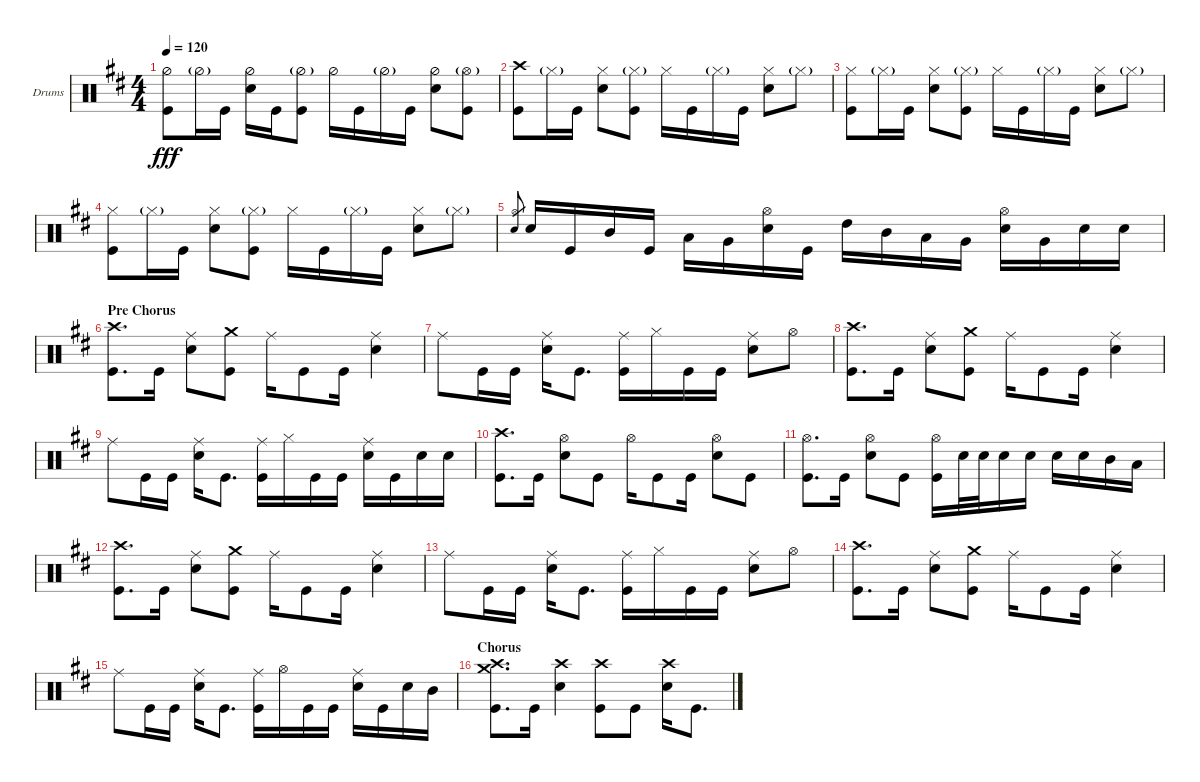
\defaultSystemsLayout 4
\bracketExtendMode groupsimilarinstruments
\firstSystemTrackNameOrientation horizontal
\otherSystemsTrackNameOrientation horizontal
\track ("Garrett" "Drums") {instrument percussion}
\staff {score}
\articulation defaults
\ts (4 4)
\tempo 120
\clef neutral
\ks bminor
("Kick (hit)" "Hi-Hat (half)").8{dy fff} "Hi-Hat (half)"{g}.16 "Kick (hit)".16 ("Snare (hit) 2" "Hi-Hat (half)").16 "Kick (hit)".16 ("Hi-Hat (half)"{g} "Kick (hit)").8 "Hi-Hat (half)".16 "Kick (hit)".16 "Hi-Hat (half)"{g}.16 "Kick (hit)".16 ("Snare (hit) 2" "Hi-Hat (half)").8 ("Hi-Hat (open)"{g} "Kick (hit)").8 |
("Crash high (hit)" "Kick (hit)").8 "Hi-Hat (closed)"{g}.16 "Kick (hit)".16 ("Snare (hit) 2" "Hi-Hat (closed)").8 ("Hi-Hat (closed)"{g} "Kick (hit)").8 "Hi-Hat (closed)".16 "Kick (hit)".16 "Hi-Hat (closed)"{g}.16 "Kick (hit)".16 ("Snare (hit) 2" "Hi-Hat (closed)").8 "Hi-Hat (closed)"{g}.8 |
("Kick (hit)" "Hi-Hat (closed)").8 "Hi-Hat (closed)"{g}.16 "Kick (hit)".16 ("Snare (hit) 2" "Hi-Hat (closed)").8 ("Hi-Hat (closed)"{g} "Kick (hit)").8 "Hi-Hat (closed)".16 "Kick (hit)".16 "Hi-Hat (closed)"{g}.16 "Kick (hit)".16 ("Snare (hit) 2" "Hi-Hat (closed)").8 "Hi-Hat (closed)"{g}.8 |
("Kick (hit)" "Hi-Hat (closed)").8 "Hi-Hat (closed)"{g}.16 "Kick (hit)".16 ("Snare (hit) 2" "Hi-Hat (closed)").8 ("Hi-Hat (closed)"{g} "Kick (hit)").8 "Hi-Hat (closed)".16 "Kick (hit)".16 "Hi-Hat (closed)"{g}.16 "Kick (hit)".16 ("Snare (hit) 2" "Hi-Hat (closed)").8 "Hi-Hat (closed)"{g}.8 |
("Snare (hit) 2" "Hi-Hat (open)").8{gr} "Snare (hit) 2".16 "Kick (hit)".16 "Mid Tom (hit)".16 "Kick (hit)".16 "Low Tom (hit)".16 "Very Low Tom (hit)".16 ("Snare (hit) 2" "Hi-Hat (open)").16 "Kick (hit)".16 "High Tom (hit)".16 "Mid Tom (hit)".16 "Low Tom (hit)".16 "Very Low Tom (hit)".16 ("Snare (hit) 2" "Hi-Hat (open)").16 "Very Low Tom (hit)".16 "Snare (hit) 2".16 "Snare (hit) 2".16 |
\section ("" "Pre Chorus")
("Crash high (hit)" "Kick (hit)").8{d} "Kick (hit)".16 ("Snare (hit) 2" "Ride (middle)").8 ("Kick (hit)" "Crash medium (hit)").8 "Ride (middle)".16 "Kick (hit)".8 "Kick (hit)".16 ("Snare (hit) 2" "Ride (middle)").4 |
"Ride (middle)".8 "Kick (hit)".16 "Kick (hit)".16 ("Snare (hit) 2" "Ride (middle)").16 "Kick (hit)".8{d} ("Ride (middle)" "Kick (hit)").16 "Hi-Hat (closed)".16 "Kick (hit)".16 "Kick (hit)".16 ("Snare (hit) 2" "Ride (middle)").8 "Hi-Hat (open)".8 |
("Crash high (hit)" "Kick (hit)").8{d} "Kick (hit)".16 ("Snare (hit) 2" "Ride (middle)").8 ("Kick (hit)" "Crash medium (hit)").8 "Ride (middle)".16 "Kick (hit)".8 "Kick (hit)".16 ("Snare (hit) 2" "Ride (middle)").4 |
"Ride (middle)".8 "Kick (hit)".16 "Kick (hit)".16 ("Snare (hit) 2" "Ride (middle)").16 "Kick (hit)".8{d} ("Ride (middle)" "Kick (hit)").16 "Hi-Hat (closed)".16 "Kick (hit)".16 "Kick (hit)".16 ("Snare (hit) 2" "Ride (middle)").16 "Kick (hit)".16 "Snare (hit) 2".16 "Snare (hit) 2".16 |
("Crash high (hit)" "Kick (hit)").8{d} "Kick (hit)".16 ("Snare (hit) 2" "Hi-Hat (open)").8 "Kick (hit)".8 "Hi-Hat (open)".16 "Kick (hit)".8 "Kick (hit)".16 ("Snare (hit) 2" "Hi-Hat (open)").8 "Kick (hit)".8 |
("Kick (hit)" "Hi-Hat (open)").8{d} "Kick (hit)".16 ("Snare (hit) 2" "Hi-Hat (open)").8 "Kick (hit)".8 ("Kick (hit)" "Hi-Hat (open)").16 "Snare (hit) 2".32 "Snare (hit) 2".32 "Snare (hit) 2".16 "Snare (hit) 2".16 "Snare (hit) 2".16 "Snare (hit) 2".16 "Mid Tom (hit)".16 "Low Tom (hit)".16 |
("Crash high (hit)" "Kick (hit)").8{d} "Kick (hit)".16 ("Snare (hit) 2" "Ride (middle)").8 ("Kick (hit)" "Crash medium (hit)").8 "Ride (middle)".16 "Kick (hit)".8 "Kick (hit)".16 ("Snare (hit) 2" "Ride (middle)").4 |
"Ride (middle)".8 "Kick (hit)".16 "Kick (hit)".16 ("Snare (hit) 2" "Ride (middle)").16 "Kick (hit)".8{d} ("Ride (middle)" "Kick (hit)").16 "Hi-Hat (closed)".16 "Kick (hit)".16 "Kick (hit)".16 ("Snare (hit) 2" "Ride (middle)").8 "Hi-Hat (open)".8 |
("Crash high (hit)" "Kick (hit)").8{d} "Kick (hit)".16 ("Snare (hit) 2" "Ride (middle)").8 ("Kick (hit)" "Crash medium (hit)").8 "Ride (middle)".16 "Kick (hit)".8 "Kick (hit)".16 ("Snare (hit) 2" "Ride (middle)").4 |
"Ride (middle)".8 "Kick (hit)".16 "Kick (hit)".16 ("Snare (hit) 2" "Ride (middle)").16 "Kick (hit)".8{d} ("Ride (middle)" "Kick (hit)").16 "Hi-Hat (open)".16 "Kick (hit)".16 "Kick (hit)".16 ("Snare (hit) 2" "Ride (middle)").16 "Kick (hit)".16 "Snare (hit) 2".16 "Mid Tom (hit)".16 |
\section ("" "Chorus")
("Crash high (hit)" "Kick (hit)" "Crash medium (hit)").8{d} "Kick (hit)".16 ("Snare (hit) 2" "Crash high (hit)").4 ("Crash high (hit)" "Kick (hit)").8 "Kick (hit)".8 ("Snare (hit) 2" "Crash high (hit)").16 "Kick (hit)".8{d}
